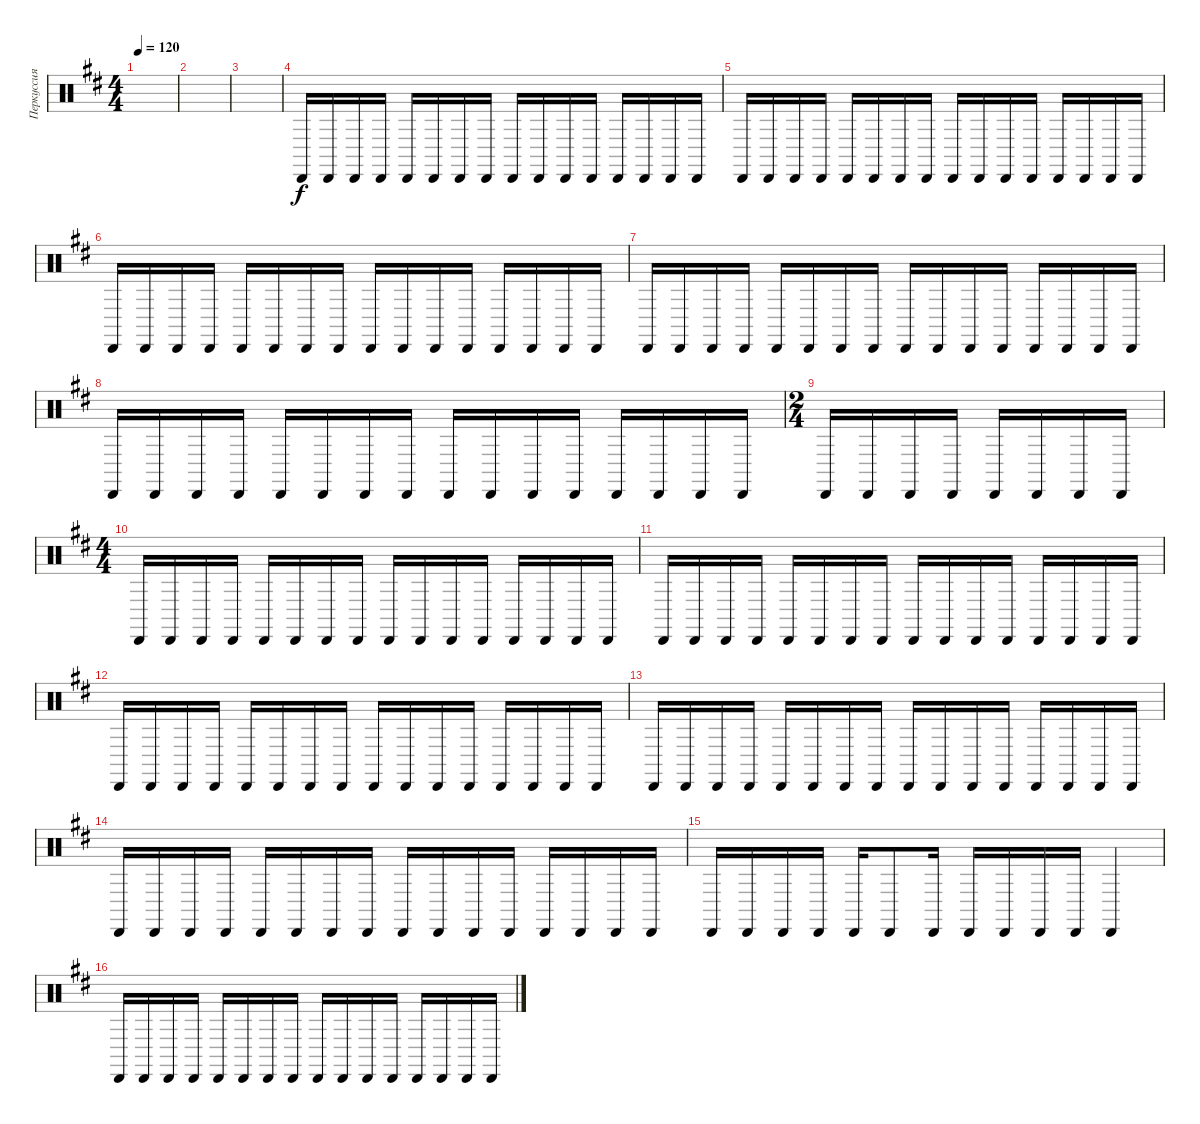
\track ("Перкуссия" "Перкуссия") {instrument percussion}
\staff {score}
\articulation defaults
\ts (4 4)
\tempo 120
\clef neutral
\ks bminor
|
|
|
\ks d "Cabasa (hit)".16 "Cabasa (hit)".16 "Cabasa (hit)".16 "Cabasa (hit)".16 "Cabasa (hit)".16 "Cabasa (hit)".16 "Cabasa (hit)".16 "Cabasa (hit)".16 "Cabasa (hit)".16 "Cabasa (hit)".16 "Cabasa (hit)".16 "Cabasa (hit)".16 "Cabasa (hit)".16 "Cabasa (hit)".16 "Cabasa (hit)".16 "Cabasa (hit)".16
|
"Cabasa (hit)".16 "Cabasa (hit)".16 "Cabasa (hit)".16 "Cabasa (hit)".16 "Cabasa (hit)".16 "Cabasa (hit)".16 "Cabasa (hit)".16 "Cabasa (hit)".16 "Cabasa (hit)".16 "Cabasa (hit)".16 "Cabasa (hit)".16 "Cabasa (hit)".16 "Cabasa (hit)".16 "Cabasa (hit)".16 "Cabasa (hit)".16 "Cabasa (hit)".16 |
"Cabasa (hit)".16 "Cabasa (hit)".16 "Cabasa (hit)".16 "Cabasa (hit)".16 "Cabasa (hit)".16 "Cabasa (hit)".16 "Cabasa (hit)".16 "Cabasa (hit)".16 "Cabasa (hit)".16 "Cabasa (hit)".16 "Cabasa (hit)".16 "Cabasa (hit)".16 "Cabasa (hit)".16 "Cabasa (hit)".16 "Cabasa (hit)".16 "Cabasa (hit)".16 |
"Cabasa (hit)".16 "Cabasa (hit)".16 "Cabasa (hit)".16 "Cabasa (hit)".16 "Cabasa (hit)".16 "Cabasa (hit)".16 "Cabasa (hit)".16 "Cabasa (hit)".16 "Cabasa (hit)".16 "Cabasa (hit)".16 "Cabasa (hit)".16 "Cabasa (hit)".16 "Cabasa (hit)".16 "Cabasa (hit)".16 "Cabasa (hit)".16 "Cabasa (hit)".16 |
"Cabasa (hit)".16 "Cabasa (hit)".16 "Cabasa (hit)".16 "Cabasa (hit)".16 "Cabasa (hit)".16 "Cabasa (hit)".16 "Cabasa (hit)".16 "Cabasa (hit)".16 "Cabasa (hit)".16 "Cabasa (hit)".16 "Cabasa (hit)".16 "Cabasa (hit)".16 "Cabasa (hit)".16 "Cabasa (hit)".16 "Cabasa (hit)".16 "Cabasa (hit)".16 |
\ts (2 4)
"Cabasa (hit)".16 "Cabasa (hit)".16 "Cabasa (hit)".16 "Cabasa (hit)".16 "Cabasa (hit)".16 "Cabasa (hit)".16 "Cabasa (hit)".16 "Cabasa (hit)".16 |
\ts (4 4)
"Cabasa (hit)".16 "Cabasa (hit)".16 "Cabasa (hit)".16 "Cabasa (hit)".16 "Cabasa (hit)".16 "Cabasa (hit)".16 "Cabasa (hit)".16 "Cabasa (hit)".16 "Cabasa (hit)".16 "Cabasa (hit)".16 "Cabasa (hit)".16 "Cabasa (hit)".16 "Cabasa (hit)".16 "Cabasa (hit)".16 "Cabasa (hit)".16 "Cabasa (hit)".16 |
"Cabasa (hit)".16 "Cabasa (hit)".16 "Cabasa (hit)".16 "Cabasa (hit)".16 "Cabasa (hit)".16 "Cabasa (hit)".16 "Cabasa (hit)".16 "Cabasa (hit)".16 "Cabasa (hit)".16 "Cabasa (hit)".16 "Cabasa (hit)".16 "Cabasa (hit)".16 "Cabasa (hit)".16 "Cabasa (hit)".16 "Cabasa (hit)".16 "Cabasa (hit)".16 |
"Cabasa (hit)".16 "Cabasa (hit)".16 "Cabasa (hit)".16 "Cabasa (hit)".16 "Cabasa (hit)".16 "Cabasa (hit)".16 "Cabasa (hit)".16 "Cabasa (hit)".16 "Cabasa (hit)".16 "Cabasa (hit)".16 "Cabasa (hit)".16 "Cabasa (hit)".16 "Cabasa (hit)".16 "Cabasa (hit)".16 "Cabasa (hit)".16 "Cabasa (hit)".16 |
"Cabasa (hit)".16 "Cabasa (hit)".16 "Cabasa (hit)".16 "Cabasa (hit)".16 "Cabasa (hit)".16 "Cabasa (hit)".16 "Cabasa (hit)".16 "Cabasa (hit)".16 "Cabasa (hit)".16 "Cabasa (hit)".16 "Cabasa (hit)".16 "Cabasa (hit)".16 "Cabasa (hit)".16 "Cabasa (hit)".16 "Cabasa (hit)".16 "Cabasa (hit)".16 |
"Cabasa (hit)".16 "Cabasa (hit)".16 "Cabasa (hit)".16 "Cabasa (hit)".16 "Cabasa (hit)".16 "Cabasa (hit)".16 "Cabasa (hit)".16 "Cabasa (hit)".16 "Cabasa (hit)".16 "Cabasa (hit)".16 "Cabasa (hit)".16 "Cabasa (hit)".16 "Cabasa (hit)".16 "Cabasa (hit)".16 "Cabasa (hit)".16 "Cabasa (hit)".16 |
"Cabasa (hit)".16 "Cabasa (hit)".16 "Cabasa (hit)".16 "Cabasa (hit)".16 "Cabasa (hit)".16 "Cabasa (hit)".8 "Cabasa (hit)".16 "Cabasa (hit)".16 "Cabasa (hit)".16 "Cabasa (hit)".16 "Cabasa (hit)".16 "Cabasa (hit)".4 |
\ks bminor "Cabasa (hit)".16 "Cabasa (hit)".16 "Cabasa (hit)".16 "Cabasa (hit)".16 "Cabasa (hit)".16 "Cabasa (hit)".16 "Cabasa (hit)".16 "Cabasa (hit)".16 "Cabasa (hit)".16 "Cabasa (hit)".16 "Cabasa (hit)".16 "Cabasa (hit)".16 "Cabasa (hit)".16 "Cabasa (hit)".16 "Cabasa (hit)".16 "Cabasa (hit)".16
